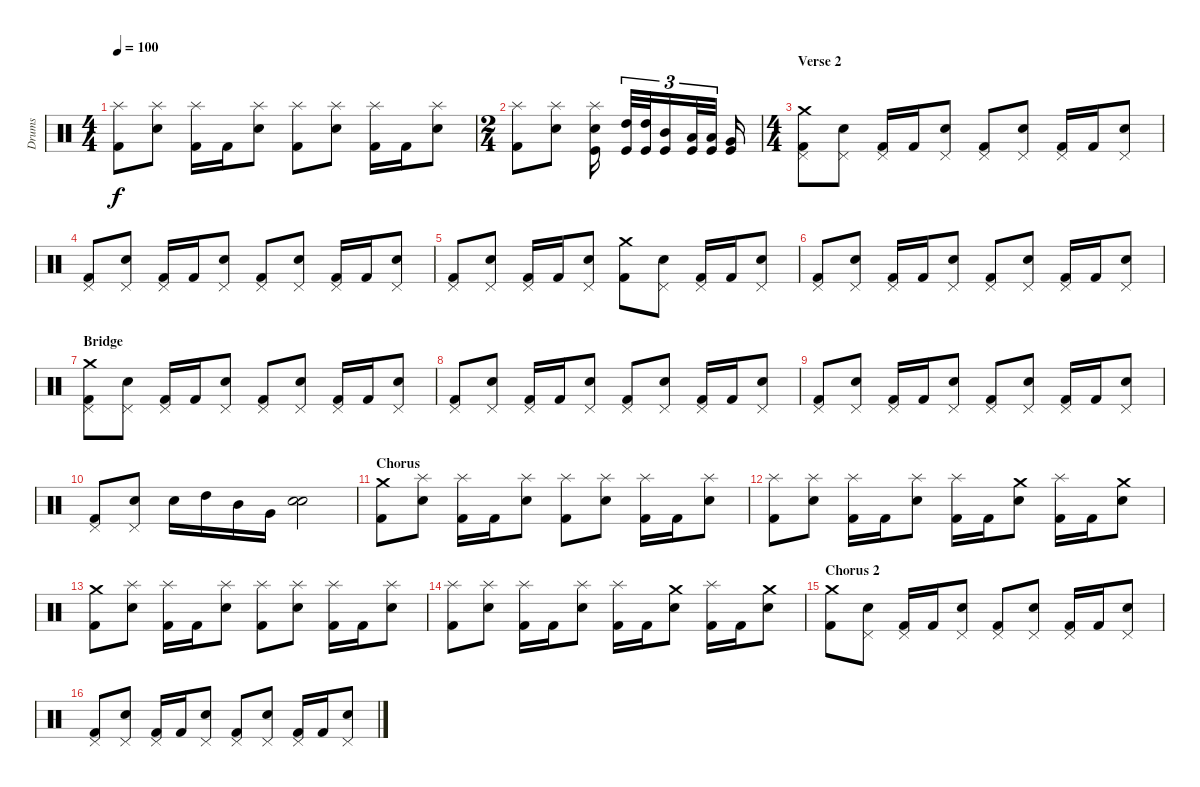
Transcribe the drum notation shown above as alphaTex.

\track ("Drums" "Drums") {instrument percussion}
\staff {score}
\articulation defaults
\ts (4 4)
\tempo 100
\clef neutral
\ks c
("Splash (hit)" "Kick (hit) 2").8{dy f} ("Splash (hit)" "Electric Snare (hit)").8 ("Splash (hit)" "Kick (hit) 2").16 "Kick (hit) 2".16 ("Splash (hit)" "Electric Snare (hit)").8 ("Splash (hit)" "Kick (hit) 2").8 ("Splash (hit)" "Electric Snare (hit)").8 ("Splash (hit)" "Kick (hit) 2").16 "Kick (hit) 2".16 ("Splash (hit)" "Electric Snare (hit)").8 |
\ts (2 4)
("Splash (hit)" "Kick (hit) 2").8 ("Splash (hit)" "Electric Snare (hit)").8 ("Splash (hit)" "Electric Snare (hit)" "Kick (hit)").16 ("High Tom (hit)" "Kick (hit)").32{tu (3 2)} ("High Tom (hit)" "Kick (hit)").32{tu (3 2)} ("Mid Tom (hit)" "Kick (hit)").16{tu (3 2)} ("Low Tom (hit)" "Kick (hit)").32{tu (3 2)} ("Low Tom (hit)" "Kick (hit)").32{tu (3 2)} ("Kick (hit)" "Very Low Tom (hit)").16 |
\ts (4 4)
\section ("" "Verse 2")
("Pedal Hi-Hat (hit)" "Crash medium (hit)" "Kick (hit) 2").8 ("Pedal Hi-Hat (hit)" "Electric Snare (hit)").8 ("Pedal Hi-Hat (hit)" "Kick (hit) 2").16 "Kick (hit) 2".16 ("Pedal Hi-Hat (hit)" "Electric Snare (hit)").8 ("Pedal Hi-Hat (hit)" "Kick (hit) 2").8 ("Pedal Hi-Hat (hit)" "Electric Snare (hit)").8 ("Pedal Hi-Hat (hit)" "Kick (hit) 2").16 "Kick (hit) 2".16 ("Pedal Hi-Hat (hit)" "Electric Snare (hit)").8 |
("Pedal Hi-Hat (hit)" "Kick (hit) 2").8 ("Pedal Hi-Hat (hit)" "Electric Snare (hit)").8 ("Pedal Hi-Hat (hit)" "Kick (hit) 2").16 "Kick (hit) 2".16 ("Pedal Hi-Hat (hit)" "Electric Snare (hit)").8 ("Pedal Hi-Hat (hit)" "Kick (hit) 2").8 ("Pedal Hi-Hat (hit)" "Electric Snare (hit)").8 ("Pedal Hi-Hat (hit)" "Kick (hit) 2").16 "Kick (hit) 2".16 ("Pedal Hi-Hat (hit)" "Electric Snare (hit)").8 |
("Pedal Hi-Hat (hit)" "Kick (hit) 2").8 ("Pedal Hi-Hat (hit)" "Electric Snare (hit)").8 ("Pedal Hi-Hat (hit)" "Kick (hit) 2").16 "Kick (hit) 2".16 ("Pedal Hi-Hat (hit)" "Electric Snare (hit)").8 ("Crash medium (hit)" "Kick (hit) 2").8 ("Pedal Hi-Hat (hit)" "Electric Snare (hit)").8 ("Pedal Hi-Hat (hit)" "Kick (hit) 2").16 "Kick (hit) 2".16 ("Pedal Hi-Hat (hit)" "Electric Snare (hit)").8 |
("Pedal Hi-Hat (hit)" "Kick (hit) 2").8 ("Pedal Hi-Hat (hit)" "Electric Snare (hit)").8 ("Pedal Hi-Hat (hit)" "Kick (hit) 2").16 "Kick (hit) 2".16 ("Pedal Hi-Hat (hit)" "Electric Snare (hit)").8 ("Pedal Hi-Hat (hit)" "Kick (hit) 2").8 ("Pedal Hi-Hat (hit)" "Electric Snare (hit)").8 ("Pedal Hi-Hat (hit)" "Kick (hit) 2").16 "Kick (hit) 2".16 ("Pedal Hi-Hat (hit)" "Electric Snare (hit)").8 |
\section ("" "Bridge ")
("Pedal Hi-Hat (hit)" "Crash medium (hit)" "Kick (hit) 2").8 ("Pedal Hi-Hat (hit)" "Electric Snare (hit)").8 ("Pedal Hi-Hat (hit)" "Kick (hit) 2").16 "Kick (hit) 2".16 ("Pedal Hi-Hat (hit)" "Electric Snare (hit)").8 ("Pedal Hi-Hat (hit)" "Kick (hit) 2").8 ("Pedal Hi-Hat (hit)" "Electric Snare (hit)").8 ("Pedal Hi-Hat (hit)" "Kick (hit) 2").16 "Kick (hit) 2".16 ("Pedal Hi-Hat (hit)" "Electric Snare (hit)").8 |
("Pedal Hi-Hat (hit)" "Kick (hit) 2").8 ("Pedal Hi-Hat (hit)" "Electric Snare (hit)").8 ("Pedal Hi-Hat (hit)" "Kick (hit) 2").16 "Kick (hit) 2".16 ("Pedal Hi-Hat (hit)" "Electric Snare (hit)").8 ("Pedal Hi-Hat (hit)" "Kick (hit) 2").8 ("Pedal Hi-Hat (hit)" "Electric Snare (hit)").8 ("Pedal Hi-Hat (hit)" "Kick (hit) 2").16 "Kick (hit) 2".16 ("Pedal Hi-Hat (hit)" "Electric Snare (hit)").8 |
("Pedal Hi-Hat (hit)" "Kick (hit) 2").8 ("Pedal Hi-Hat (hit)" "Electric Snare (hit)").8 ("Pedal Hi-Hat (hit)" "Kick (hit) 2").16 "Kick (hit) 2".16 ("Pedal Hi-Hat (hit)" "Electric Snare (hit)").8 ("Pedal Hi-Hat (hit)" "Kick (hit) 2").8 ("Pedal Hi-Hat (hit)" "Electric Snare (hit)").8 ("Pedal Hi-Hat (hit)" "Kick (hit) 2").16 "Kick (hit) 2".16 ("Pedal Hi-Hat (hit)" "Electric Snare (hit)").8 |
("Pedal Hi-Hat (hit)" "Kick (hit) 2").8 ("Pedal Hi-Hat (hit)" "Electric Snare (hit)").8 "Electric Snare (hit)".16 "High Tom (hit)".16 "Mid Tom (hit)".16 "Very Low Tom (hit)".16 ("Electric Snare (hit)" "Snare (hit) 2").2 |
\section ("" "Chorus")
("Crash medium (hit)" "Kick (hit) 2").8 ("Splash (hit)" "Electric Snare (hit)").8 ("Splash (hit)" "Kick (hit) 2").16 "Kick (hit) 2".16 ("Splash (hit)" "Electric Snare (hit)").8 ("Splash (hit)" "Kick (hit) 2").8 ("Splash (hit)" "Electric Snare (hit)").8 ("Splash (hit)" "Kick (hit) 2").16 "Kick (hit) 2".16 ("Splash (hit)" "Electric Snare (hit)").8 |
("Splash (hit)" "Kick (hit) 2").8 ("Splash (hit)" "Electric Snare (hit)").8 ("Splash (hit)" "Kick (hit) 2").16 "Kick (hit) 2".16 ("Splash (hit)" "Electric Snare (hit)").8 ("Splash (hit)" "Kick (hit) 2").16 "Kick (hit) 2".16 ("Crash medium (hit)" "Electric Snare (hit)").8 ("Splash (hit)" "Kick (hit) 2").16 "Kick (hit) 2".16 ("Crash medium (hit)" "Electric Snare (hit)").8 |
("Crash medium (hit)" "Kick (hit) 2").8 ("Splash (hit)" "Electric Snare (hit)").8 ("Splash (hit)" "Kick (hit) 2").16 "Kick (hit) 2".16 ("Splash (hit)" "Electric Snare (hit)").8 ("Splash (hit)" "Kick (hit) 2").8 ("Splash (hit)" "Electric Snare (hit)").8 ("Splash (hit)" "Kick (hit) 2").16 "Kick (hit) 2".16 ("Splash (hit)" "Electric Snare (hit)").8 |
("Splash (hit)" "Kick (hit) 2").8 ("Splash (hit)" "Electric Snare (hit)").8 ("Splash (hit)" "Kick (hit) 2").16 "Kick (hit) 2".16 ("Splash (hit)" "Electric Snare (hit)").8 ("Splash (hit)" "Kick (hit) 2").16 "Kick (hit) 2".16 ("Crash medium (hit)" "Electric Snare (hit)").8 ("Splash (hit)" "Kick (hit) 2").16 "Kick (hit) 2".16 ("Crash medium (hit)" "Electric Snare (hit)").8 |
\section ("" "Chorus 2 ")
("Crash medium (hit)" "Kick (hit) 2").8 ("Pedal Hi-Hat (hit)" "Electric Snare (hit)").8 ("Pedal Hi-Hat (hit)" "Kick (hit) 2").16 "Kick (hit) 2".16 ("Pedal Hi-Hat (hit)" "Electric Snare (hit)").8 ("Pedal Hi-Hat (hit)" "Kick (hit) 2").8 ("Pedal Hi-Hat (hit)" "Electric Snare (hit)").8 ("Pedal Hi-Hat (hit)" "Kick (hit) 2").16 "Kick (hit) 2".16 ("Pedal Hi-Hat (hit)" "Electric Snare (hit)").8 |
("Pedal Hi-Hat (hit)" "Kick (hit) 2").8 ("Pedal Hi-Hat (hit)" "Electric Snare (hit)").8 ("Pedal Hi-Hat (hit)" "Kick (hit) 2").16 "Kick (hit) 2".16 ("Pedal Hi-Hat (hit)" "Electric Snare (hit)").8 ("Pedal Hi-Hat (hit)" "Kick (hit) 2").8 ("Pedal Hi-Hat (hit)" "Electric Snare (hit)").8 ("Pedal Hi-Hat (hit)" "Kick (hit) 2").16 "Kick (hit) 2".16 ("Pedal Hi-Hat (hit)" "Electric Snare (hit)").8
